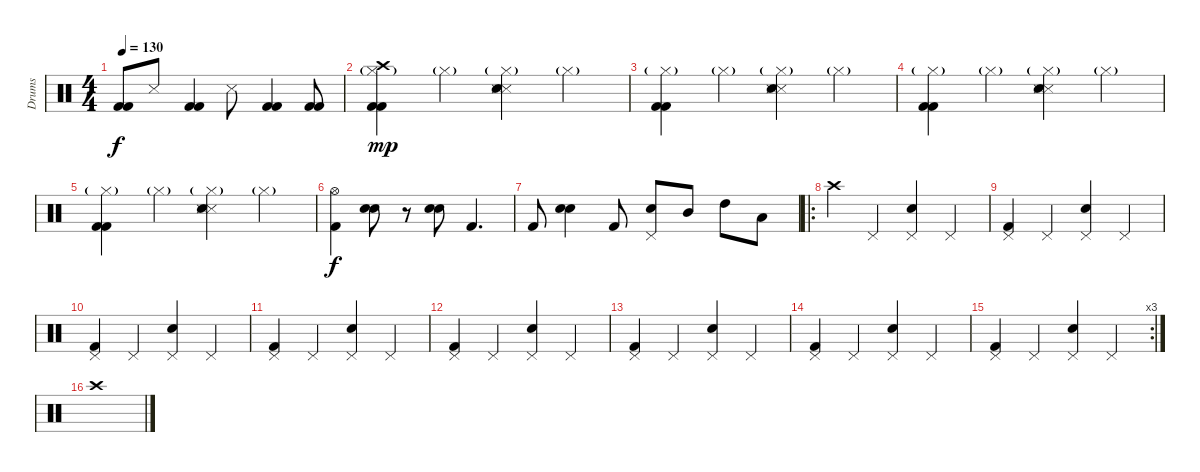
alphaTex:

\track ("Drums" "Drums") {instrument percussion}
\staff {score}
\articulation defaults
\ts (4 4)
\tempo 130
\clef neutral
\ks c
("Kick (hit) 2" "Kick (hit) 2").8{dy f} "Snare (side stick) 3".8 ("Kick (hit) 2" "Kick (hit) 2").4 "Snare (side stick) 3".8 ("Kick (hit) 2" "Kick (hit) 2").4 ("Kick (hit) 2" "Kick (hit) 2").8 |
("Kick (hit) 2" "Kick (hit) 2" "Crash high (hit)" "Hi-Hat (closed)"{g}).4{dy mp} "Hi-Hat (closed)"{g}.4 ("Snare (side stick) 3" "Snare (side stick) 3" "Snare (hit)" "Hi-Hat (closed)"{g}).4 "Hi-Hat (closed)"{g}.4 |
("Kick (hit) 2" "Kick (hit) 2" "Hi-Hat (closed)"{g}).4 "Hi-Hat (closed)"{g}.4 ("Snare (side stick) 3" "Snare (side stick) 3" "Snare (hit)" "Hi-Hat (closed)"{g}).4 "Hi-Hat (closed)"{g}.4 |
("Kick (hit) 2" "Kick (hit) 2" "Hi-Hat (closed)"{g}).4 "Hi-Hat (closed)"{g}.4 ("Snare (side stick) 3" "Snare (side stick) 3" "Snare (hit)" "Hi-Hat (closed)"{g}).4 "Hi-Hat (closed)"{g}.4 |
("Kick (hit) 2" "Kick (hit) 2" "Hi-Hat (closed)"{g}).4 "Hi-Hat (closed)"{g}.4 ("Snare (side stick) 3" "Snare (side stick) 3" "Snare (hit)" "Hi-Hat (closed)"{g}).4 "Hi-Hat (closed)"{g}.4 |
("Hi-Hat (open)" "Kick (hit) 2").4{dy f} ("Electric Snare (hit)" "Snare (hit) 2").8 r.8 ("Electric Snare (hit)" "Snare (hit) 2").8 "Kick (hit) 2".4{d} |
"Kick (hit) 2".8 ("Electric Snare (hit)" "Snare (hit) 2").4 "Kick (hit) 2".8 ("Pedal Hi-Hat (hit)" "Snare (hit) 2").8 "Mid Tom (hit)".8 "High Tom (hit)".8 "Low Tom (hit)".8 |
\ro "Crash high (hit)".4 "Pedal Hi-Hat (hit)".4
("Pedal Hi-Hat (hit)" "Snare (hit) 2").4 "Pedal Hi-Hat (hit)".4 |
("Pedal Hi-Hat (hit)" "Kick (hit) 2").4 "Pedal Hi-Hat (hit)".4 ("Pedal Hi-Hat (hit)" "Snare (hit) 2").4 "Pedal Hi-Hat (hit)".4 |
("Pedal Hi-Hat (hit)" "Kick (hit) 2").4 "Pedal Hi-Hat (hit)".4 ("Pedal Hi-Hat (hit)" "Snare (hit) 2").4 "Pedal Hi-Hat (hit)".4 |
("Pedal Hi-Hat (hit)" "Kick (hit) 2").4 "Pedal Hi-Hat (hit)".4 ("Pedal Hi-Hat (hit)" "Snare (hit) 2").4 "Pedal Hi-Hat (hit)".4 |
("Pedal Hi-Hat (hit)" "Kick (hit) 2").4 "Pedal Hi-Hat (hit)".4 ("Pedal Hi-Hat (hit)" "Snare (hit) 2").4 "Pedal Hi-Hat (hit)".4 |
("Pedal Hi-Hat (hit)" "Kick (hit) 2").4 "Pedal Hi-Hat (hit)".4 ("Pedal Hi-Hat (hit)" "Snare (hit) 2").4 "Pedal Hi-Hat (hit)".4 |
("Pedal Hi-Hat (hit)" "Kick (hit) 2").4 "Pedal Hi-Hat (hit)".4 ("Pedal Hi-Hat (hit)" "Snare (hit) 2").4 "Pedal Hi-Hat (hit)".4 |
\rc 3
("Pedal Hi-Hat (hit)" "Kick (hit) 2").4 "Pedal Hi-Hat (hit)".4 ("Pedal Hi-Hat (hit)" "Snare (hit) 2").4 "Pedal Hi-Hat (hit)".4 |
"Crash high (hit)".1
